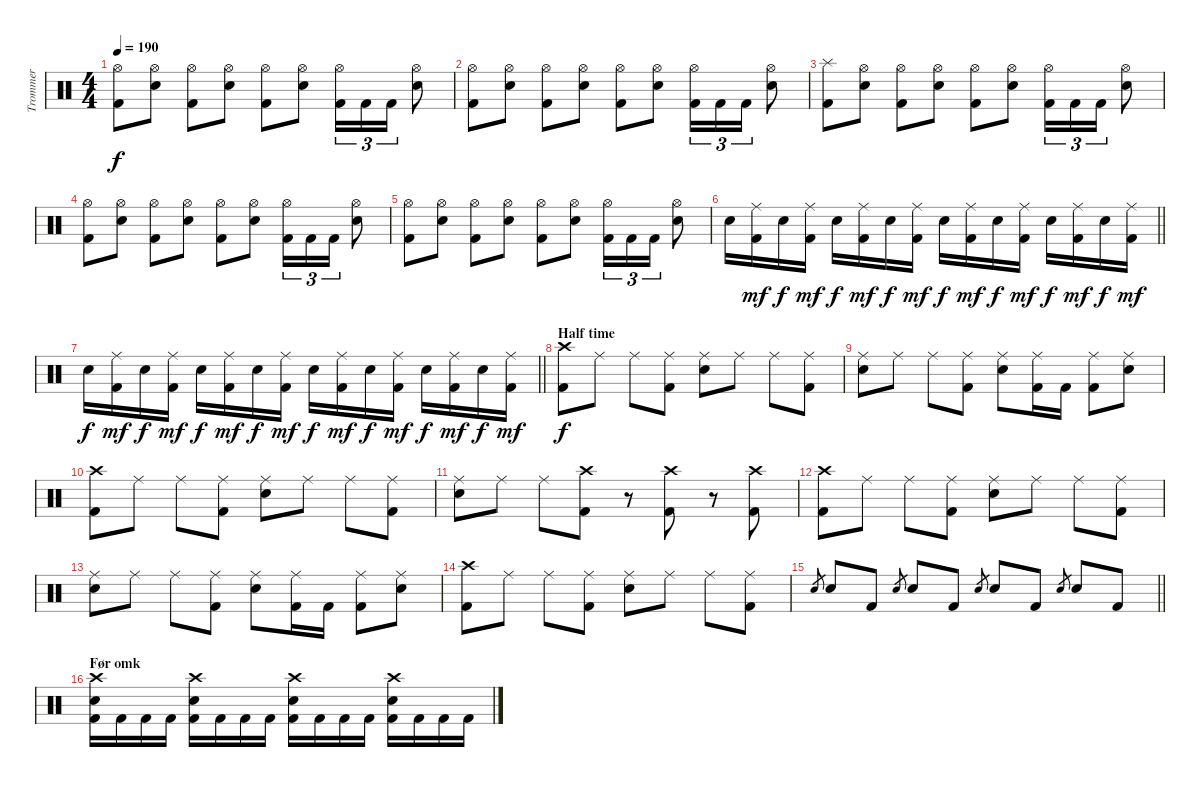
\track ("Trommer" "Trommer") {instrument percussion}
\staff {score}
\articulation defaults
\ts (4 4)
\tempo 190
\clef neutral
\ks c
("Hi-Hat (open)" "Kick (hit) 2").8{dy f} ("Hi-Hat (open)" "Snare (hit) 2").8 ("Hi-Hat (open)" "Kick (hit) 2").8 ("Hi-Hat (open)" "Snare (hit) 2").8 ("Hi-Hat (open)" "Kick (hit) 2").8 ("Hi-Hat (open)" "Snare (hit) 2").8 ("Hi-Hat (open)" "Kick (hit) 2").16{tu (3 2)} "Kick (hit) 2".16{tu (3 2)} "Kick (hit) 2".16{tu (3 2)} ("Hi-Hat (open)" "Snare (hit) 2").8 |
("Hi-Hat (open)" "Kick (hit) 2").8 ("Hi-Hat (open)" "Snare (hit) 2").8 ("Hi-Hat (open)" "Kick (hit) 2").8 ("Hi-Hat (open)" "Snare (hit) 2").8 ("Hi-Hat (open)" "Kick (hit) 2").8 ("Hi-Hat (open)" "Snare (hit) 2").8 ("Hi-Hat (open)" "Kick (hit) 2").16{tu (3 2)} "Kick (hit) 2".16{tu (3 2)} "Kick (hit) 2".16{tu (3 2)} ("Hi-Hat (open)" "Snare (hit) 2").8 |
("Splash (hit)" "Kick (hit) 2").8 ("Hi-Hat (open)" "Snare (hit) 2").8 ("Hi-Hat (open)" "Kick (hit) 2").8 ("Hi-Hat (open)" "Snare (hit) 2").8 ("Hi-Hat (open)" "Kick (hit) 2").8 ("Hi-Hat (open)" "Snare (hit) 2").8 ("Hi-Hat (open)" "Kick (hit) 2").16{tu (3 2)} "Kick (hit) 2".16{tu (3 2)} "Kick (hit) 2".16{tu (3 2)} ("Hi-Hat (open)" "Snare (hit) 2").8 |
("Hi-Hat (open)" "Kick (hit) 2").8 ("Hi-Hat (open)" "Snare (hit) 2").8 ("Hi-Hat (open)" "Kick (hit) 2").8 ("Hi-Hat (open)" "Snare (hit) 2").8 ("Hi-Hat (open)" "Kick (hit) 2").8 ("Hi-Hat (open)" "Snare (hit) 2").8 ("Hi-Hat (open)" "Kick (hit) 2").16{tu (3 2)} "Kick (hit) 2".16{tu (3 2)} "Kick (hit) 2".16{tu (3 2)} ("Hi-Hat (open)" "Snare (hit) 2").8 |
("Hi-Hat (open)" "Kick (hit) 2").8 ("Hi-Hat (open)" "Snare (hit) 2").8 ("Hi-Hat (open)" "Kick (hit) 2").8 ("Hi-Hat (open)" "Snare (hit) 2").8 ("Hi-Hat (open)" "Kick (hit) 2").8 ("Hi-Hat (open)" "Snare (hit) 2").8 ("Hi-Hat (open)" "Kick (hit) 2").16{tu (3 2)} "Kick (hit) 2".16{tu (3 2)} "Kick (hit) 2".16{tu (3 2)} ("Hi-Hat (open)" "Snare (hit) 2").8 |
\barLineRight lightlight "Snare (hit) 2".16
("Ride (middle)" "Kick (hit) 2").16{dy mf} "Snare (hit) 2".16{dy f} ("Ride (middle)" "Kick (hit) 2").16{dy mf} "Snare (hit) 2".16{dy f} ("Ride (middle)" "Kick (hit) 2").16{dy mf} "Snare (hit) 2".16{dy f} ("Ride (middle)" "Kick (hit) 2").16{dy mf} "Snare (hit) 2".16{dy f} ("Ride (middle)" "Kick (hit) 2").16{dy mf} "Snare (hit) 2".16{dy f} ("Ride (middle)" "Kick (hit) 2").16{dy mf} "Snare (hit) 2".16{dy f} ("Ride (middle)" "Kick (hit) 2").16{dy mf} "Snare (hit) 2".16{dy f} ("Ride (middle)" "Kick (hit) 2").16{dy mf} |
\barLineRight lightlight "Snare (hit) 2".16{dy f}
("Ride (middle)" "Kick (hit) 2").16{dy mf} "Snare (hit) 2".16{dy f} ("Ride (middle)" "Kick (hit) 2").16{dy mf} "Snare (hit) 2".16{dy f} ("Ride (middle)" "Kick (hit) 2").16{dy mf} "Snare (hit) 2".16{dy f} ("Ride (middle)" "Kick (hit) 2").16{dy mf} "Snare (hit) 2".16{dy f} ("Ride (middle)" "Kick (hit) 2").16{dy mf} "Snare (hit) 2".16{dy f} ("Ride (middle)" "Kick (hit) 2").16{dy mf} "Snare (hit) 2".16{dy f} ("Ride (middle)" "Kick (hit) 2").16{dy mf} "Snare (hit) 2".16{dy f} ("Ride (middle)" "Kick (hit) 2").16{dy mf} |
\section ("" "Half time")
("Crash high (hit)" "Kick (hit) 2").8{dy f} "Ride (middle)".8 "Ride (middle)".8 ("Ride (middle)" "Kick (hit) 2").8 ("Ride (middle)" "Snare (hit) 2").8 "Ride (middle)".8 "Ride (middle)".8 ("Ride (middle)" "Kick (hit) 2").8 |
("Ride (middle)" "Snare (hit) 2").8 "Ride (middle)".8 "Ride (middle)".8 ("Ride (middle)" "Kick (hit) 2").8 ("Ride (middle)" "Snare (hit) 2").8 ("Ride (middle)" "Kick (hit) 2").16 "Kick (hit) 2".16 ("Ride (middle)" "Kick (hit) 2").8 ("Ride (middle)" "Snare (hit) 2").8 |
("Crash high (hit)" "Kick (hit) 2").8 "Ride (middle)".8 "Ride (middle)".8 ("Ride (middle)" "Kick (hit) 2").8 ("Ride (middle)" "Snare (hit) 2").8 "Ride (middle)".8 "Ride (middle)".8 ("Ride (middle)" "Kick (hit) 2").8 |
("Ride (middle)" "Snare (hit) 2").8 "Ride (middle)".8 "Ride (middle)".8 ("Crash high (hit)" "Kick (hit) 2").8 r.8 ("Crash high (hit)" "Kick (hit) 2").8 r.8 ("Crash high (hit)" "Kick (hit) 2").8 |
("Crash high (hit)" "Kick (hit) 2").8 "Ride (middle)".8 "Ride (middle)".8 ("Ride (middle)" "Kick (hit) 2").8 ("Ride (middle)" "Snare (hit) 2").8 "Ride (middle)".8 "Ride (middle)".8 ("Ride (middle)" "Kick (hit) 2").8 |
("Ride (middle)" "Snare (hit) 2").8 "Ride (middle)".8 "Ride (middle)".8 ("Ride (middle)" "Kick (hit) 2").8 ("Ride (middle)" "Snare (hit) 2").8 ("Ride (middle)" "Kick (hit) 2").16 "Kick (hit) 2".16 ("Ride (middle)" "Kick (hit) 2").8 ("Ride (middle)" "Snare (hit) 2").8 |
("Crash high (hit)" "Kick (hit) 2").8 "Ride (middle)".8 "Ride (middle)".8 ("Ride (middle)" "Kick (hit) 2").8 ("Ride (middle)" "Snare (hit) 2").8 "Ride (middle)".8 "Ride (middle)".8 ("Ride (middle)" "Kick (hit) 2").8 |
\barLineRight lightlight "Snare (hit) 2".8{gr} "Snare (hit) 2".8 "Kick (hit) 2".8 "Snare (hit) 2".8{gr} "Snare (hit) 2".8 "Kick (hit) 2".8 "Snare (hit) 2".8{gr} "Snare (hit) 2".8 "Kick (hit) 2".8 "Snare (hit) 2".8{gr} "Snare (hit) 2".8 "Kick (hit) 2".8
|
\section ("" "Før omk")
("Crash high (hit)" "Snare (hit) 2" "Kick (hit) 2").16 "Kick (hit) 2".16 "Kick (hit) 2".16 "Kick (hit) 2".16 ("Crash high (hit)" "Snare (hit) 2" "Kick (hit) 2").16 "Kick (hit) 2".16 "Kick (hit) 2".16 "Kick (hit) 2".16 ("Crash high (hit)" "Snare (hit) 2" "Kick (hit) 2").16 "Kick (hit) 2".16 "Kick (hit) 2".16 "Kick (hit) 2".16 ("Crash high (hit)" "Snare (hit) 2" "Kick (hit) 2").16 "Kick (hit) 2".16 "Kick (hit) 2".16 "Kick (hit) 2".16
